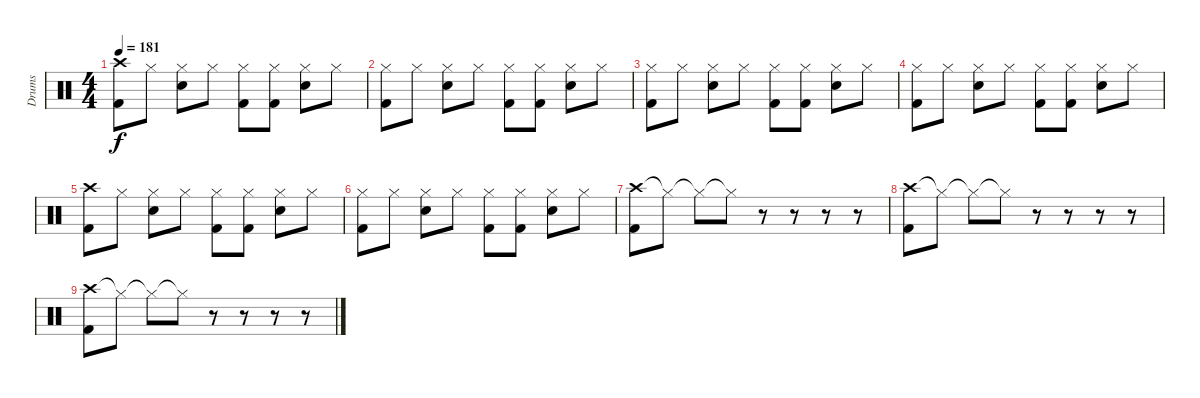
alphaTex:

\track ("Drums" "Drums") {instrument percussion}
\staff {score}
\articulation defaults
\ts (4 4)
\tempo 181
\clef neutral
\ks c
("Crash high (hit)" "Kick (hit) 2").8{dy f} "Hi-Hat (closed)".8 ("Hi-Hat (closed)" "Snare (hit) 2").8 "Hi-Hat (closed)".8 ("Hi-Hat (closed)" "Kick (hit) 2").8 ("Hi-Hat (closed)" "Kick (hit) 2").8 ("Hi-Hat (closed)" "Snare (hit) 2").8 "Hi-Hat (closed)".8 |
("Hi-Hat (closed)" "Kick (hit) 2").8 "Hi-Hat (closed)".8 ("Hi-Hat (closed)" "Snare (hit) 2").8 "Hi-Hat (closed)".8 ("Hi-Hat (closed)" "Kick (hit) 2").8 ("Hi-Hat (closed)" "Kick (hit) 2").8 ("Hi-Hat (closed)" "Snare (hit) 2").8 "Hi-Hat (closed)".8 |
("Hi-Hat (closed)" "Kick (hit) 2").8 "Hi-Hat (closed)".8 ("Hi-Hat (closed)" "Snare (hit) 2").8 "Hi-Hat (closed)".8 ("Hi-Hat (closed)" "Kick (hit) 2").8 ("Hi-Hat (closed)" "Kick (hit) 2").8 ("Hi-Hat (closed)" "Snare (hit) 2").8 "Hi-Hat (closed)".8 |
("Hi-Hat (closed)" "Kick (hit) 2").8 "Hi-Hat (closed)".8 ("Hi-Hat (closed)" "Snare (hit) 2").8 "Hi-Hat (closed)".8 ("Hi-Hat (closed)" "Kick (hit) 2").8 ("Hi-Hat (closed)" "Kick (hit) 2").8 ("Hi-Hat (closed)" "Snare (hit) 2").8 "Hi-Hat (closed)".8 |
("Crash high (hit)" "Kick (hit) 2").8 "Hi-Hat (closed)".8 ("Hi-Hat (closed)" "Snare (hit) 2").8 "Hi-Hat (closed)".8 ("Hi-Hat (closed)" "Kick (hit) 2").8 ("Hi-Hat (closed)" "Kick (hit) 2").8 ("Hi-Hat (closed)" "Snare (hit) 2").8 "Hi-Hat (closed)".8 |
("Hi-Hat (closed)" "Kick (hit) 2").8 "Hi-Hat (closed)".8 ("Hi-Hat (closed)" "Snare (hit) 2").8 "Hi-Hat (closed)".8 ("Hi-Hat (closed)" "Kick (hit) 2").8 ("Hi-Hat (closed)" "Kick (hit) 2").8 ("Hi-Hat (closed)" "Snare (hit) 2").8 "Hi-Hat (closed)".8 |
("Crash high (hit)" "Kick (hit) 2").8 "Hi-Hat (closed)"{t}.8 "Hi-Hat (closed)"{t}.8 "Hi-Hat (closed)"{t}.8 r.8 r.8 r.8 r.8 |
("Crash high (hit)" "Kick (hit) 2").8 "Hi-Hat (closed)"{t}.8 "Hi-Hat (closed)"{t}.8 "Hi-Hat (closed)"{t}.8 r.8 r.8 r.8 r.8 |
("Crash high (hit)" "Kick (hit) 2").8 "Hi-Hat (closed)"{t}.8 "Hi-Hat (closed)"{t}.8 "Hi-Hat (closed)"{t}.8 r.8 r.8 r.8 r.8
